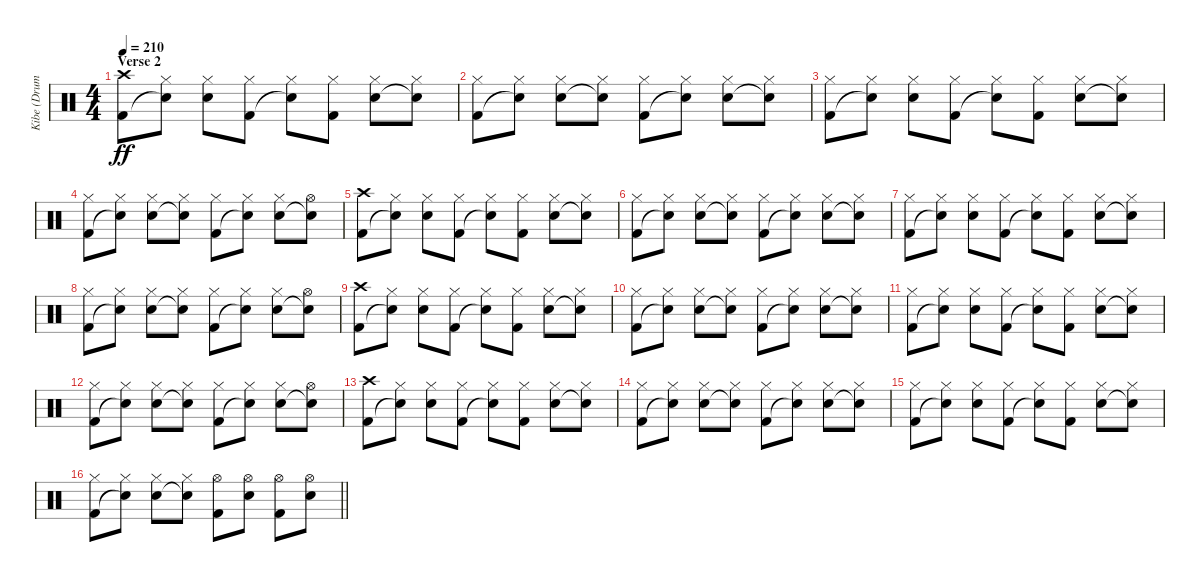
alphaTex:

\track ("Kibe (Drums)" "Kibe (Drum") {instrument percussion}
\staff {score}
\articulation defaults
\ts (4 4)
\section ("" "Verse 2")
\tempo 210
\clef neutral
\ks c
("Crash high (hit)" "Kick (hit) 2").8{dy ff} ("Hi-Hat (closed)" "Snare (hit)"{t}).8 ("Hi-Hat (closed)" "Snare (hit) 2").8 ("Hi-Hat (closed)" "Kick (hit) 2").8 ("Hi-Hat (closed)" "Snare (hit)"{t}).8 ("Hi-Hat (closed)" "Kick (hit) 2").8 ("Hi-Hat (closed)" "Snare (hit) 2").8 ("Hi-Hat (closed)" "Snare (hit)"{t}).8 |
("Hi-Hat (closed)" "Kick (hit) 2").8 ("Hi-Hat (closed)" "Snare (hit)"{t}).8 ("Hi-Hat (closed)" "Snare (hit) 2").8 ("Hi-Hat (closed)" "Snare (hit)"{t}).8 ("Hi-Hat (closed)" "Kick (hit) 2").8 ("Hi-Hat (closed)" "Snare (hit)"{t}).8 ("Hi-Hat (closed)" "Snare (hit) 2").8 ("Hi-Hat (closed)" "Snare (hit)"{t}).8 |
("Hi-Hat (closed)" "Kick (hit) 2").8 ("Hi-Hat (closed)" "Snare (hit)"{t}).8 ("Hi-Hat (closed)" "Snare (hit) 2").8 ("Hi-Hat (closed)" "Kick (hit) 2").8 ("Hi-Hat (closed)" "Snare (hit)"{t}).8 ("Hi-Hat (closed)" "Kick (hit) 2").8 ("Hi-Hat (closed)" "Snare (hit) 2").8 ("Hi-Hat (closed)" "Snare (hit)"{t}).8 |
("Hi-Hat (closed)" "Kick (hit) 2").8 ("Hi-Hat (closed)" "Snare (hit)"{t}).8 ("Hi-Hat (closed)" "Snare (hit) 2").8 ("Hi-Hat (closed)" "Snare (hit)"{t}).8 ("Hi-Hat (closed)" "Kick (hit) 2").8 ("Hi-Hat (closed)" "Snare (hit)"{t}).8 ("Hi-Hat (closed)" "Snare (hit) 2").8 ("Hi-Hat (open)" "Snare (hit)"{t}).8 |
("Crash high (hit)" "Kick (hit) 2").8 ("Hi-Hat (closed)" "Snare (hit)"{t}).8 ("Hi-Hat (closed)" "Snare (hit) 2").8 ("Hi-Hat (closed)" "Kick (hit) 2").8 ("Hi-Hat (closed)" "Snare (hit)"{t}).8 ("Hi-Hat (closed)" "Kick (hit) 2").8 ("Hi-Hat (closed)" "Snare (hit) 2").8 ("Hi-Hat (closed)" "Snare (hit)"{t}).8 |
("Hi-Hat (closed)" "Kick (hit) 2").8 ("Hi-Hat (closed)" "Snare (hit)"{t}).8 ("Hi-Hat (closed)" "Snare (hit) 2").8 ("Hi-Hat (closed)" "Snare (hit)"{t}).8 ("Hi-Hat (closed)" "Kick (hit) 2").8 ("Hi-Hat (closed)" "Snare (hit)"{t}).8 ("Hi-Hat (closed)" "Snare (hit) 2").8 ("Hi-Hat (closed)" "Snare (hit)"{t}).8 |
("Hi-Hat (closed)" "Kick (hit) 2").8 ("Hi-Hat (closed)" "Snare (hit)"{t}).8 ("Hi-Hat (closed)" "Snare (hit) 2").8 ("Hi-Hat (closed)" "Kick (hit) 2").8 ("Hi-Hat (closed)" "Snare (hit)"{t}).8 ("Hi-Hat (closed)" "Kick (hit) 2").8 ("Hi-Hat (closed)" "Snare (hit) 2").8 ("Hi-Hat (closed)" "Snare (hit)"{t}).8 |
("Hi-Hat (closed)" "Kick (hit) 2").8 ("Hi-Hat (closed)" "Snare (hit)"{t}).8 ("Hi-Hat (closed)" "Snare (hit) 2").8 ("Hi-Hat (closed)" "Snare (hit)"{t}).8 ("Hi-Hat (closed)" "Kick (hit) 2").8 ("Hi-Hat (closed)" "Snare (hit)"{t}).8 ("Hi-Hat (closed)" "Snare (hit) 2").8 ("Hi-Hat (open)" "Snare (hit)"{t}).8 |
("Crash high (hit)" "Kick (hit) 2").8 ("Hi-Hat (closed)" "Snare (hit)"{t}).8 ("Hi-Hat (closed)" "Snare (hit) 2").8 ("Hi-Hat (closed)" "Kick (hit) 2").8 ("Hi-Hat (closed)" "Snare (hit)"{t}).8 ("Hi-Hat (closed)" "Kick (hit) 2").8 ("Hi-Hat (closed)" "Snare (hit) 2").8 ("Hi-Hat (closed)" "Snare (hit)"{t}).8 |
("Hi-Hat (closed)" "Kick (hit) 2").8 ("Hi-Hat (closed)" "Snare (hit)"{t}).8 ("Hi-Hat (closed)" "Snare (hit) 2").8 ("Hi-Hat (closed)" "Snare (hit)"{t}).8 ("Hi-Hat (closed)" "Kick (hit) 2").8 ("Hi-Hat (closed)" "Snare (hit)"{t}).8 ("Hi-Hat (closed)" "Snare (hit) 2").8 ("Hi-Hat (closed)" "Snare (hit)"{t}).8 |
("Hi-Hat (closed)" "Kick (hit) 2").8 ("Hi-Hat (closed)" "Snare (hit)"{t}).8 ("Hi-Hat (closed)" "Snare (hit) 2").8 ("Hi-Hat (closed)" "Kick (hit) 2").8 ("Hi-Hat (closed)" "Snare (hit)"{t}).8 ("Hi-Hat (closed)" "Kick (hit) 2").8 ("Hi-Hat (closed)" "Snare (hit) 2").8 ("Hi-Hat (closed)" "Snare (hit)"{t}).8 |
("Hi-Hat (closed)" "Kick (hit) 2").8 ("Hi-Hat (closed)" "Snare (hit)"{t}).8 ("Hi-Hat (closed)" "Snare (hit) 2").8 ("Hi-Hat (closed)" "Snare (hit)"{t}).8 ("Hi-Hat (closed)" "Kick (hit) 2").8 ("Hi-Hat (closed)" "Snare (hit)"{t}).8 ("Hi-Hat (closed)" "Snare (hit) 2").8 ("Hi-Hat (open)" "Snare (hit)"{t}).8 |
("Crash high (hit)" "Kick (hit) 2").8 ("Hi-Hat (closed)" "Snare (hit)"{t}).8 ("Hi-Hat (closed)" "Snare (hit) 2").8 ("Hi-Hat (closed)" "Kick (hit) 2").8 ("Hi-Hat (closed)" "Snare (hit)"{t}).8 ("Hi-Hat (closed)" "Kick (hit) 2").8 ("Hi-Hat (closed)" "Snare (hit) 2").8 ("Hi-Hat (closed)" "Snare (hit)"{t}).8 |
("Hi-Hat (closed)" "Kick (hit) 2").8 ("Hi-Hat (closed)" "Snare (hit)"{t}).8 ("Hi-Hat (closed)" "Snare (hit) 2").8 ("Hi-Hat (closed)" "Snare (hit)"{t}).8 ("Hi-Hat (closed)" "Kick (hit) 2").8 ("Hi-Hat (closed)" "Snare (hit)"{t}).8 ("Hi-Hat (closed)" "Snare (hit) 2").8 ("Hi-Hat (closed)" "Snare (hit)"{t}).8 |
("Hi-Hat (closed)" "Kick (hit) 2").8 ("Hi-Hat (closed)" "Snare (hit)"{t}).8 ("Hi-Hat (closed)" "Snare (hit) 2").8 ("Hi-Hat (closed)" "Kick (hit) 2").8 ("Hi-Hat (closed)" "Snare (hit)"{t}).8 ("Hi-Hat (closed)" "Kick (hit) 2").8 ("Hi-Hat (closed)" "Snare (hit) 2").8 ("Hi-Hat (closed)" "Snare (hit)"{t}).8 |
\barLineRight lightlight
("Hi-Hat (closed)" "Kick (hit) 2").8 ("Hi-Hat (closed)" "Snare (hit)"{t}).8 ("Hi-Hat (closed)" "Snare (hit) 2").8 ("Hi-Hat (closed)" "Snare (hit)"{t}).8 ("Hi-Hat (open)" "Kick (hit) 2").8 ("Hi-Hat (open)" "Snare (hit) 2").8 ("Hi-Hat (open)" "Kick (hit) 2").8 ("Hi-Hat (open)" "Snare (hit) 2").8
